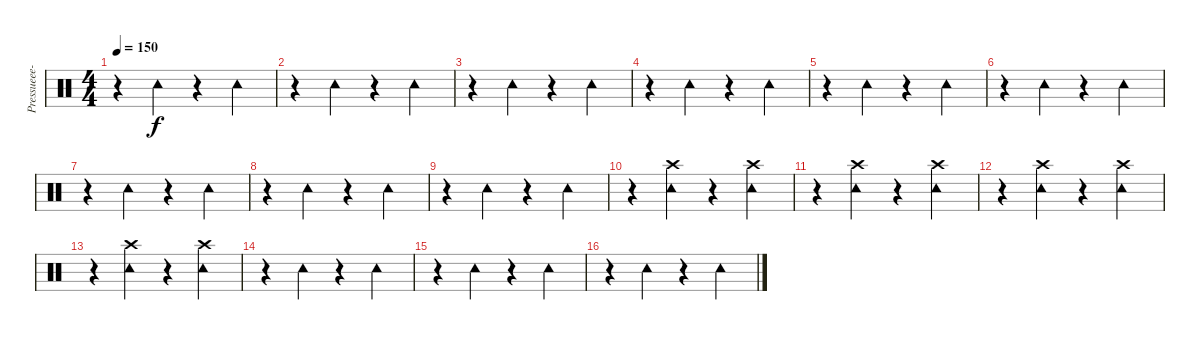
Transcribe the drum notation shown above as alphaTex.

\track ("" "Pressueee-") {instrument percussion}
\staff {score}
\articulation defaults
\ts (4 4)
\tempo 150
\clef neutral
\ks c
r.4{dy f} "Tambourine (hit)".4 r.4 "Tambourine (hit)".4 |
r.4 "Tambourine (hit)".4 r.4 "Tambourine (hit)".4 |
r.4 "Tambourine (hit)".4 r.4 "Tambourine (hit)".4 |
r.4 "Tambourine (hit)".4 r.4 "Tambourine (hit)".4 |
r.4 "Tambourine (hit)".4 r.4 "Tambourine (hit)".4 |
r.4 "Tambourine (hit)".4 r.4 "Tambourine (hit)".4 |
r.4 "Tambourine (hit)".4 r.4 "Tambourine (hit)".4 |
r.4 "Tambourine (hit)".4 r.4 "Tambourine (hit)".4 |
r.4 "Tambourine (hit)".4 r.4 "Tambourine (hit)".4 |
r.4 ("Crash high (hit)" "Tambourine (hit)").4 r.4 ("Crash high (hit)" "Tambourine (hit)").4 |
r.4 ("Crash high (hit)" "Tambourine (hit)").4 r.4 ("Crash high (hit)" "Tambourine (hit)").4 |
r.4 ("Crash high (hit)" "Tambourine (hit)").4 r.4 ("Crash high (hit)" "Tambourine (hit)").4 |
r.4 ("Crash high (hit)" "Tambourine (hit)").4 r.4 ("Crash high (hit)" "Tambourine (hit)").4 |
r.4 "Tambourine (hit)".4 r.4 "Tambourine (hit)".4 |
r.4 "Tambourine (hit)".4 r.4 "Tambourine (hit)".4 |
r.4 "Tambourine (hit)".4 r.4 "Tambourine (hit)".4
